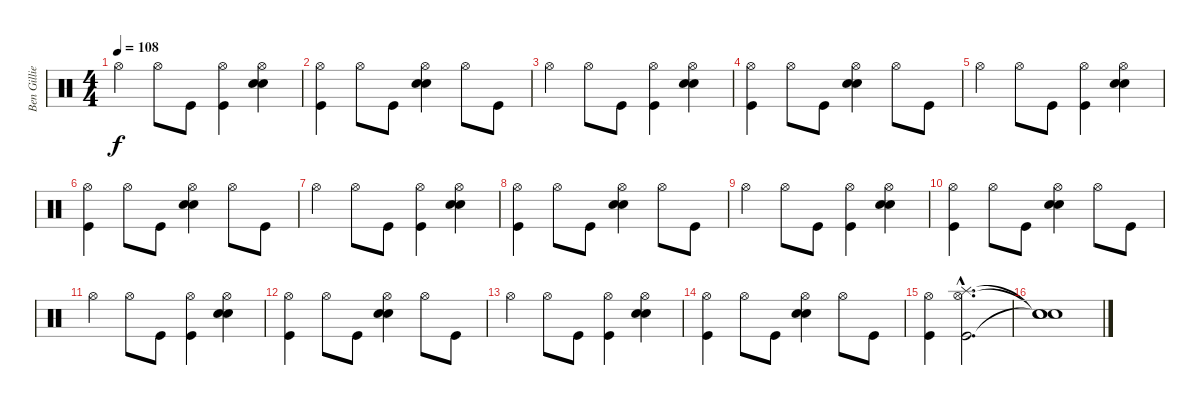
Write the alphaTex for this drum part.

\track ("Ben Gillies (percus)" "Ben Gillie") {instrument percussion}
\staff {score}
\articulation defaults
\ts (4 4)
\tempo 108
\clef neutral
\ks c "Hi-Hat (open)".4{dy f} "Hi-Hat (open)".8 "Kick (hit)".8
("Hi-Hat (open)" "Kick (hit)").4 ("Electric Snare (hit)" "Snare (hit) 2" "Hi-Hat (open)").4 |
("Hi-Hat (open)" "Kick (hit)").4 "Hi-Hat (open)".8 "Kick (hit)".8 ("Electric Snare (hit)" "Snare (hit) 2" "Hi-Hat (open)").4 "Hi-Hat (open)".8 "Kick (hit)".8 |
"Hi-Hat (open)".4 "Hi-Hat (open)".8 "Kick (hit)".8 ("Hi-Hat (open)" "Kick (hit)").4 ("Electric Snare (hit)" "Snare (hit) 2" "Hi-Hat (open)").4 |
("Hi-Hat (open)" "Kick (hit)").4 "Hi-Hat (open)".8 "Kick (hit)".8 ("Electric Snare (hit)" "Snare (hit) 2" "Hi-Hat (open)").4 "Hi-Hat (open)".8 "Kick (hit)".8 |
"Hi-Hat (open)".4 "Hi-Hat (open)".8 "Kick (hit)".8 ("Hi-Hat (open)" "Kick (hit)").4 ("Electric Snare (hit)" "Snare (hit) 2" "Hi-Hat (open)").4 |
("Hi-Hat (open)" "Kick (hit)").4 "Hi-Hat (open)".8 "Kick (hit)".8 ("Electric Snare (hit)" "Snare (hit) 2" "Hi-Hat (open)").4 "Hi-Hat (open)".8 "Kick (hit)".8 |
"Hi-Hat (open)".4 "Hi-Hat (open)".8 "Kick (hit)".8 ("Hi-Hat (open)" "Kick (hit)").4 ("Electric Snare (hit)" "Snare (hit) 2" "Hi-Hat (open)").4 |
("Hi-Hat (open)" "Kick (hit)").4 "Hi-Hat (open)".8 "Kick (hit)".8 ("Electric Snare (hit)" "Snare (hit) 2" "Hi-Hat (open)").4 "Hi-Hat (open)".8 "Kick (hit)".8 |
"Hi-Hat (open)".4 "Hi-Hat (open)".8 "Kick (hit)".8 ("Hi-Hat (open)" "Kick (hit)").4 ("Electric Snare (hit)" "Snare (hit) 2" "Hi-Hat (open)").4 |
("Hi-Hat (open)" "Kick (hit)").4 "Hi-Hat (open)".8 "Kick (hit)".8 ("Electric Snare (hit)" "Snare (hit) 2" "Hi-Hat (open)").4 "Hi-Hat (open)".8 "Kick (hit)".8 |
"Hi-Hat (open)".4 "Hi-Hat (open)".8 "Kick (hit)".8 ("Hi-Hat (open)" "Kick (hit)").4 ("Electric Snare (hit)" "Snare (hit) 2" "Hi-Hat (open)").4 |
("Hi-Hat (open)" "Kick (hit)").4 "Hi-Hat (open)".8 "Kick (hit)".8 ("Electric Snare (hit)" "Snare (hit) 2" "Hi-Hat (open)").4 "Hi-Hat (open)".8 "Kick (hit)".8 |
"Hi-Hat (open)".4 "Hi-Hat (open)".8 "Kick (hit)".8 ("Hi-Hat (open)" "Kick (hit)").4 ("Electric Snare (hit)" "Snare (hit) 2" "Hi-Hat (open)").4 |
("Hi-Hat (open)" "Kick (hit)").4 "Hi-Hat (open)".8 "Kick (hit)".8 ("Electric Snare (hit)" "Snare (hit) 2" "Hi-Hat (open)").4 "Hi-Hat (open)".8 "Kick (hit)".8 |
("Hi-Hat (open)" "Kick (hit)").4 ("Hi-Hat (open)"{hac} "Splash (hit)"{hac} "Kick (hit)"{hac}).2{d} |
("Snare (hit)"{t} "Snare (hit)"{t} "Snare (hit)"{t}).1
